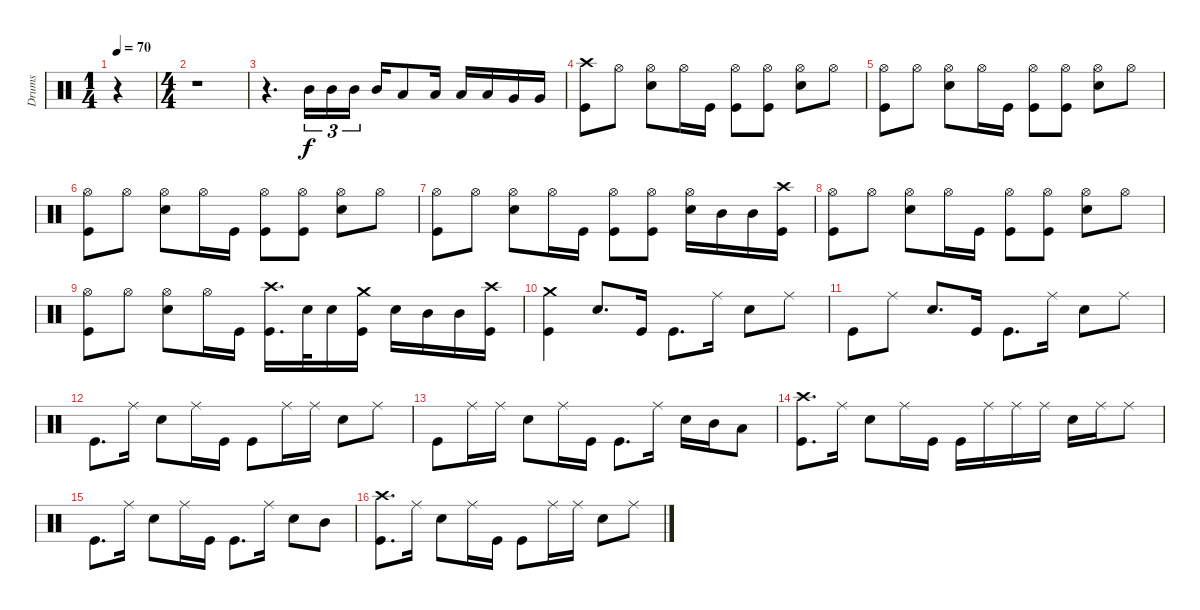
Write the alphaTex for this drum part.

\track ("Drums" "Drums") {instrument percussion}
\staff {score}
\articulation defaults
\ts (1 4)
\tempo 70
\clef neutral
\ks c
r.4{dy f} |
\ts (4 4)
r.1 |
r.4{d} "Mid Tom (hit)".16{tu (3 2)} "Mid Tom (hit)".16{tu (3 2)} "Mid Tom (hit)".16{tu (3 2)} "Mid Tom (hit)".16 "Low Tom (hit)".8 "Low Tom (hit)".16 "Low Tom (hit)".16 "Low Tom (hit)".16 "Very Low Tom (hit)".16 "Very Low Tom (hit)".16 |
("Crash high (hit)" "Kick (hit)").8 "Hi-Hat (open)".8 ("Hi-Hat (open)" "Snare (hit) 2").8 "Hi-Hat (open)".16 "Kick (hit)".16 ("Hi-Hat (open)" "Kick (hit)").8 ("Hi-Hat (open)" "Kick (hit)").8 ("Hi-Hat (open)" "Snare (hit) 2").8 "Hi-Hat (open)".8 |
("Hi-Hat (open)" "Kick (hit)").8 "Hi-Hat (open)".8 ("Hi-Hat (open)" "Snare (hit) 2").8 "Hi-Hat (open)".16 "Kick (hit)".16 ("Hi-Hat (open)" "Kick (hit)").8 ("Hi-Hat (open)" "Kick (hit)").8 ("Hi-Hat (open)" "Snare (hit) 2").8 "Hi-Hat (open)".8 |
("Hi-Hat (open)" "Kick (hit)").8 "Hi-Hat (open)".8 ("Hi-Hat (open)" "Snare (hit) 2").8 "Hi-Hat (open)".16 "Kick (hit)".16 ("Hi-Hat (open)" "Kick (hit)").8 ("Hi-Hat (open)" "Kick (hit)").8 ("Hi-Hat (open)" "Snare (hit) 2").8 "Hi-Hat (open)".8 |
("Hi-Hat (open)" "Kick (hit)").8 "Hi-Hat (open)".8 ("Hi-Hat (open)" "Snare (hit) 2").8 "Hi-Hat (open)".16 "Kick (hit)".16 ("Hi-Hat (open)" "Kick (hit)").8 ("Hi-Hat (open)" "Kick (hit)").8 ("Hi-Hat (open)" "Snare (hit) 2").16 "Mid Tom (hit)".16 "Mid Tom (hit)".16 ("Crash high (hit)" "Kick (hit)").16 |
("Hi-Hat (open)" "Kick (hit)").8 "Hi-Hat (open)".8 ("Hi-Hat (open)" "Snare (hit) 2").8 "Hi-Hat (open)".16 "Kick (hit)".16 ("Hi-Hat (open)" "Kick (hit)").8 ("Hi-Hat (open)" "Kick (hit)").8 ("Hi-Hat (open)" "Snare (hit) 2").8 "Hi-Hat (open)".8 |
("Hi-Hat (open)" "Kick (hit)").8 "Hi-Hat (open)".8 ("Hi-Hat (open)" "Snare (hit) 2").8 "Hi-Hat (open)".16 "Kick (hit)".16 ("Crash high (hit)" "Kick (hit)").16{d} "Snare (hit) 2".32 "Snare (hit) 2".16 ("Crash medium (hit)" "Kick (hit)").16 "Snare (hit) 2".16 "Mid Tom (hit)".16 "Mid Tom (hit)".16 ("Crash high (hit)" "Kick (hit)").16 |
("Crash medium (hit)" "Kick (hit)").4 "Snare (hit) 2".8{d} "Kick (hit)".16 "Kick (hit)".8{d} "Ride (middle)".16 "Snare (hit) 2".8 "Ride (middle)".8 |
"Kick (hit)".8 "Ride (middle)".8 "Snare (hit) 2".8{d} "Kick (hit)".16 "Kick (hit)".8{d} "Ride (middle)".16 "Snare (hit) 2".8 "Ride (middle)".8 |
"Kick (hit)".8{d} "Ride (middle)".16 "Snare (hit) 2".8 "Ride (middle)".16 "Kick (hit)".16 "Kick (hit)".8 "Ride (middle)".16 "Ride (middle)".16 "Snare (hit) 2".8 "Ride (middle)".8 |
"Kick (hit)".8 "Ride (middle)".16 "Ride (middle)".16 "Snare (hit) 2".8 "Ride (middle)".16 "Kick (hit)".16 "Kick (hit)".8{d} "Ride (middle)".16 "Snare (hit) 2".16 "Mid Tom (hit)".16 "Low Tom (hit)".8 |
("Crash high (hit)" "Kick (hit)").8{d} "Ride (middle)".16 "Snare (hit) 2".8 "Ride (middle)".16 "Kick (hit)".16 "Kick (hit)".16 "Ride (middle)".16 "Ride (middle)".16 "Ride (middle)".16 "Snare (hit) 2".16 "Ride (middle)".16 "Ride (middle)".8 |
"Kick (hit)".8{d} "Ride (middle)".16 "Snare (hit) 2".8 "Ride (middle)".16 "Kick (hit)".16 "Kick (hit)".8{d} "Ride (middle)".16 "Snare (hit) 2".8 "Mid Tom (hit)".8 |
("Crash high (hit)" "Kick (hit)").8{d} "Ride (middle)".16 "Snare (hit) 2".8 "Ride (middle)".16 "Kick (hit)".16 "Kick (hit)".8 "Ride (middle)".16 "Ride (middle)".16 "Snare (hit) 2".8 "Ride (middle)".8
